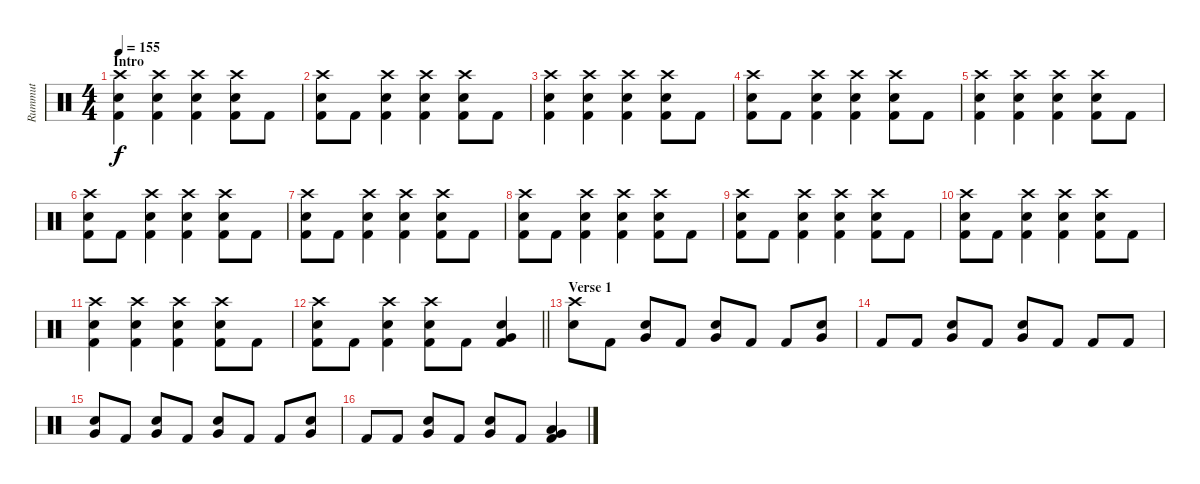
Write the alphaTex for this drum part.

\track ("Rummut" "Rummut") {instrument percussion}
\staff {score}
\articulation defaults
\ts (4 4)
\section ("" "Intro")
\tempo 155
\clef neutral
\ks c
("Crash high (hit)" "Electric Snare (hit)" "Kick (hit) 2").4{dy f} ("Crash high (hit)" "Electric Snare (hit)" "Kick (hit) 2").4 ("Crash high (hit)" "Electric Snare (hit)" "Kick (hit) 2").4 ("Crash high (hit)" "Electric Snare (hit)" "Kick (hit) 2").8 "Kick (hit) 2".8 |
("Crash high (hit)" "Electric Snare (hit)" "Kick (hit) 2").8 "Kick (hit) 2".8 ("Crash high (hit)" "Electric Snare (hit)" "Kick (hit) 2").4 ("Crash high (hit)" "Electric Snare (hit)" "Kick (hit) 2").4 ("Crash high (hit)" "Electric Snare (hit)" "Kick (hit) 2").8 "Kick (hit) 2".8 |
("Crash high (hit)" "Electric Snare (hit)" "Kick (hit) 2").4 ("Crash high (hit)" "Electric Snare (hit)" "Kick (hit) 2").4 ("Crash high (hit)" "Electric Snare (hit)" "Kick (hit) 2").4 ("Crash high (hit)" "Electric Snare (hit)" "Kick (hit) 2").8 "Kick (hit) 2".8 |
("Crash high (hit)" "Electric Snare (hit)" "Kick (hit) 2").8 "Kick (hit) 2".8 ("Crash high (hit)" "Electric Snare (hit)" "Kick (hit) 2").4 ("Crash high (hit)" "Electric Snare (hit)" "Kick (hit) 2").4 ("Crash high (hit)" "Electric Snare (hit)" "Kick (hit) 2").8 "Kick (hit) 2".8 |
("Crash high (hit)" "Electric Snare (hit)" "Kick (hit) 2").4 ("Crash high (hit)" "Electric Snare (hit)" "Kick (hit) 2").4 ("Crash high (hit)" "Electric Snare (hit)" "Kick (hit) 2").4 ("Crash high (hit)" "Electric Snare (hit)" "Kick (hit) 2").8 "Kick (hit) 2".8 |
("Crash high (hit)" "Electric Snare (hit)" "Kick (hit) 2").8 "Kick (hit) 2".8 ("Crash high (hit)" "Electric Snare (hit)" "Kick (hit) 2").4 ("Crash high (hit)" "Electric Snare (hit)" "Kick (hit) 2").4 ("Crash high (hit)" "Electric Snare (hit)" "Kick (hit) 2").8 "Kick (hit) 2".8 |
("Crash high (hit)" "Electric Snare (hit)" "Kick (hit) 2").8 "Kick (hit) 2".8 ("Crash high (hit)" "Electric Snare (hit)" "Kick (hit) 2").4 ("Crash high (hit)" "Electric Snare (hit)" "Kick (hit) 2").4 ("Crash high (hit)" "Electric Snare (hit)" "Kick (hit) 2").8 "Kick (hit) 2".8 |
("Crash high (hit)" "Electric Snare (hit)" "Kick (hit) 2").8 "Kick (hit) 2".8 ("Crash high (hit)" "Electric Snare (hit)" "Kick (hit) 2").4 ("Crash high (hit)" "Electric Snare (hit)" "Kick (hit) 2").4 ("Crash high (hit)" "Electric Snare (hit)" "Kick (hit) 2").8 "Kick (hit) 2".8 |
("Crash high (hit)" "Electric Snare (hit)" "Kick (hit) 2").8 "Kick (hit) 2".8 ("Crash high (hit)" "Electric Snare (hit)" "Kick (hit) 2").4 ("Crash high (hit)" "Electric Snare (hit)" "Kick (hit) 2").4 ("Crash high (hit)" "Electric Snare (hit)" "Kick (hit) 2").8 "Kick (hit) 2".8 |
("Crash high (hit)" "Electric Snare (hit)" "Kick (hit) 2").8 "Kick (hit) 2".8 ("Crash high (hit)" "Electric Snare (hit)" "Kick (hit) 2").4 ("Crash high (hit)" "Electric Snare (hit)" "Kick (hit) 2").4 ("Crash high (hit)" "Electric Snare (hit)" "Kick (hit) 2").8 "Kick (hit) 2".8 |
("Crash high (hit)" "Electric Snare (hit)" "Kick (hit) 2").4 ("Crash high (hit)" "Electric Snare (hit)" "Kick (hit) 2").4 ("Crash high (hit)" "Electric Snare (hit)" "Kick (hit) 2").4 ("Crash high (hit)" "Electric Snare (hit)" "Kick (hit) 2").8 "Kick (hit) 2".8 |
\barLineRight lightlight
("Crash high (hit)" "Electric Snare (hit)" "Kick (hit) 2").8 "Kick (hit) 2".8 ("Crash high (hit)" "Electric Snare (hit)" "Kick (hit) 2").4 ("Crash high (hit)" "Electric Snare (hit)" "Kick (hit) 2").8 "Kick (hit) 2".8 ("Very Low Tom (hit)" "Electric Snare (hit)" "Kick (hit) 2").4 |
\section ("" "Verse 1")
("Crash high (hit)" "Electric Snare (hit)").8 "Kick (hit) 2".8 ("Very Low Tom (hit)" "Electric Snare (hit)").8 "Kick (hit) 2".8 ("Very Low Tom (hit)" "Electric Snare (hit)").8 "Kick (hit) 2".8 "Kick (hit) 2".8 ("Very Low Tom (hit)" "Electric Snare (hit)").8 |
"Kick (hit) 2".8 "Kick (hit) 2".8 ("Very Low Tom (hit)" "Electric Snare (hit)").8 "Kick (hit) 2".8 ("Very Low Tom (hit)" "Electric Snare (hit)").8 "Kick (hit) 2".8 "Kick (hit) 2".8 "Kick (hit) 2".8 |
("Very Low Tom (hit)" "Electric Snare (hit)").8 "Kick (hit) 2".8 ("Very Low Tom (hit)" "Electric Snare (hit)").8 "Kick (hit) 2".8 ("Very Low Tom (hit)" "Electric Snare (hit)").8 "Kick (hit) 2".8 "Kick (hit) 2".8 ("Very Low Tom (hit)" "Electric Snare (hit)").8 |
"Kick (hit) 2".8 "Kick (hit) 2".8 ("Very Low Tom (hit)" "Electric Snare (hit)").8 "Kick (hit) 2".8 ("Very Low Tom (hit)" "Electric Snare (hit)").8 "Kick (hit) 2".8 ("Low Tom (hit)" "Very Low Tom (hit)" "Kick (hit) 2").4
